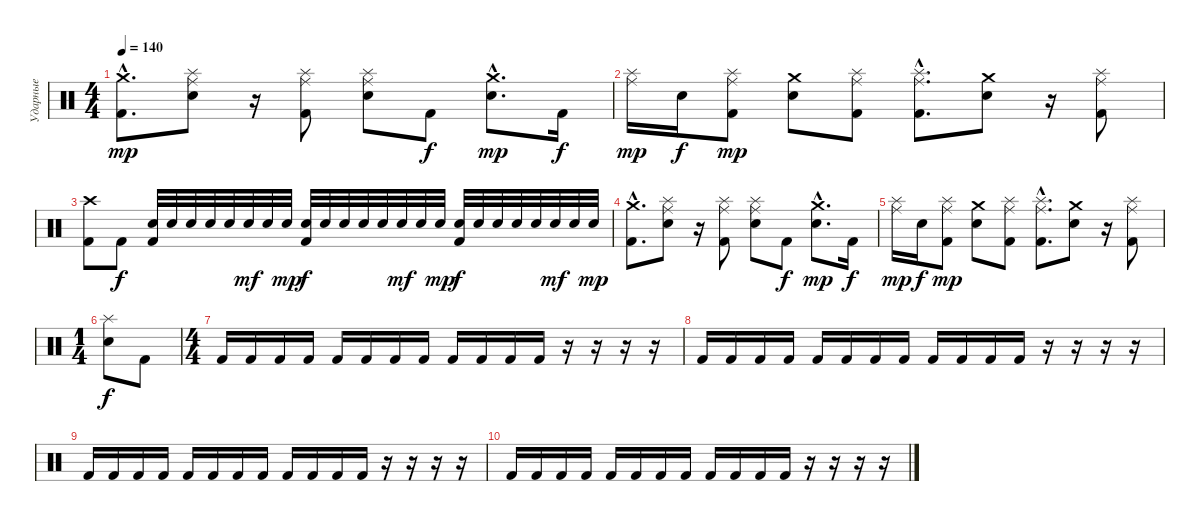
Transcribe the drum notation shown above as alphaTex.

\track ("Ударные" "Ударные") {instrument percussion}
\staff {score}
\articulation defaults
\ts (4 4)
\tempo 140
\clef neutral
\ks c
("Crash medium (hit)"{hac} "Kick (hit) 2"{hac}).8{d dy mp} ("Splash (hit)" "Ride (middle)" "Snare (hit) 2").8 r.16 ("Splash (hit)" "Ride (middle)" "Kick (hit) 2").8 ("Splash (hit)" "Ride (middle)" "Snare (hit) 2").8 "Kick (hit) 2".8{dy f} ("Crash medium (hit)"{hac} "Snare (hit) 2"{hac}).8{d dy mp} "Kick (hit) 2".16{dy f} |
("Splash (hit)" "Ride (middle)").16{dy mp} "Snare (hit) 2".16{dy f} ("Splash (hit)" "Ride (middle)" "Kick (hit) 2").8{dy mp} ("Crash medium (hit)" "Snare (hit) 2").8 ("Splash (hit)" "Ride (middle)" "Kick (hit) 2").8 ("Splash (hit)"{hac} "Ride (middle)"{hac} "Kick (hit) 2"{hac}).8{d} ("Crash medium (hit)" "Snare (hit) 2").8 r.16 ("Splash (hit)" "Ride (middle)" "Kick (hit) 2").8 |
("Crash high (hit)" "Kick (hit) 2").8 "Kick (hit) 2".8{dy f} ("Snare (hit) 2" "Kick (hit) 2").32 "Snare (hit) 2".32 "Snare (hit) 2".32 "Snare (hit) 2".32 "Snare (hit) 2".32 "Snare (hit) 2".32{dy mf} "Snare (hit) 2".32 "Snare (hit) 2".32{dy mp} ("Snare (hit) 2" "Kick (hit) 2").32{dy f} "Snare (hit) 2".32 "Snare (hit) 2".32 "Snare (hit) 2".32 "Snare (hit) 2".32 "Snare (hit) 2".32{dy mf} "Snare (hit) 2".32 "Snare (hit) 2".32{dy mp} ("Snare (hit) 2" "Kick (hit) 2").32{dy f} "Snare (hit) 2".32 "Snare (hit) 2".32 "Snare (hit) 2".32 "Snare (hit) 2".32 "Snare (hit) 2".32{dy mf} "Snare (hit) 2".32 "Snare (hit) 2".32{dy mp} |
("Crash medium (hit)"{hac} "Kick (hit) 2"{hac}).8{d} ("Splash (hit)" "Ride (middle)" "Snare (hit) 2").8 r.16 ("Splash (hit)" "Ride (middle)" "Kick (hit) 2").8 ("Splash (hit)" "Ride (middle)" "Snare (hit) 2").8 "Kick (hit) 2".8{dy f} ("Crash medium (hit)"{hac} "Snare (hit) 2"{hac}).8{d dy mp} "Kick (hit) 2".16{dy f} |
("Splash (hit)" "Ride (middle)").16{dy mp} "Snare (hit) 2".16{dy f} ("Splash (hit)" "Ride (middle)" "Kick (hit) 2").8{dy mp} ("Crash medium (hit)" "Snare (hit) 2").8 ("Splash (hit)" "Ride (middle)" "Kick (hit) 2").8 ("Splash (hit)"{hac} "Ride (middle)"{hac} "Kick (hit) 2"{hac}).8{d} ("Crash medium (hit)" "Snare (hit) 2").8 r.16 ("Splash (hit)" "Ride (middle)" "Kick (hit) 2").8 |
\ts (1 4)
("Splash (hit)" "Snare (hit) 2").8{dy f} "Kick (hit) 2".8 |
\ts (4 4)
"Kick (hit) 2".16 "Kick (hit) 2".16 "Kick (hit) 2".16 "Kick (hit) 2".16 "Kick (hit) 2".16 "Kick (hit) 2".16 "Kick (hit) 2".16 "Kick (hit) 2".16 "Kick (hit) 2".16 "Kick (hit) 2".16 "Kick (hit) 2".16 "Kick (hit) 2".16 r.16 r.16 r.16 r.16 |
"Kick (hit) 2".16 "Kick (hit) 2".16 "Kick (hit) 2".16 "Kick (hit) 2".16 "Kick (hit) 2".16 "Kick (hit) 2".16 "Kick (hit) 2".16 "Kick (hit) 2".16 "Kick (hit) 2".16 "Kick (hit) 2".16 "Kick (hit) 2".16 "Kick (hit) 2".16 r.16 r.16 r.16 r.16 |
"Kick (hit) 2".16 "Kick (hit) 2".16 "Kick (hit) 2".16 "Kick (hit) 2".16 "Kick (hit) 2".16 "Kick (hit) 2".16 "Kick (hit) 2".16 "Kick (hit) 2".16 "Kick (hit) 2".16 "Kick (hit) 2".16 "Kick (hit) 2".16 "Kick (hit) 2".16 r.16 r.16 r.16 r.16 |
"Kick (hit) 2".16 "Kick (hit) 2".16 "Kick (hit) 2".16 "Kick (hit) 2".16 "Kick (hit) 2".16 "Kick (hit) 2".16 "Kick (hit) 2".16 "Kick (hit) 2".16 "Kick (hit) 2".16 "Kick (hit) 2".16 "Kick (hit) 2".16 "Kick (hit) 2".16 r.16 r.16 r.16 r.16
